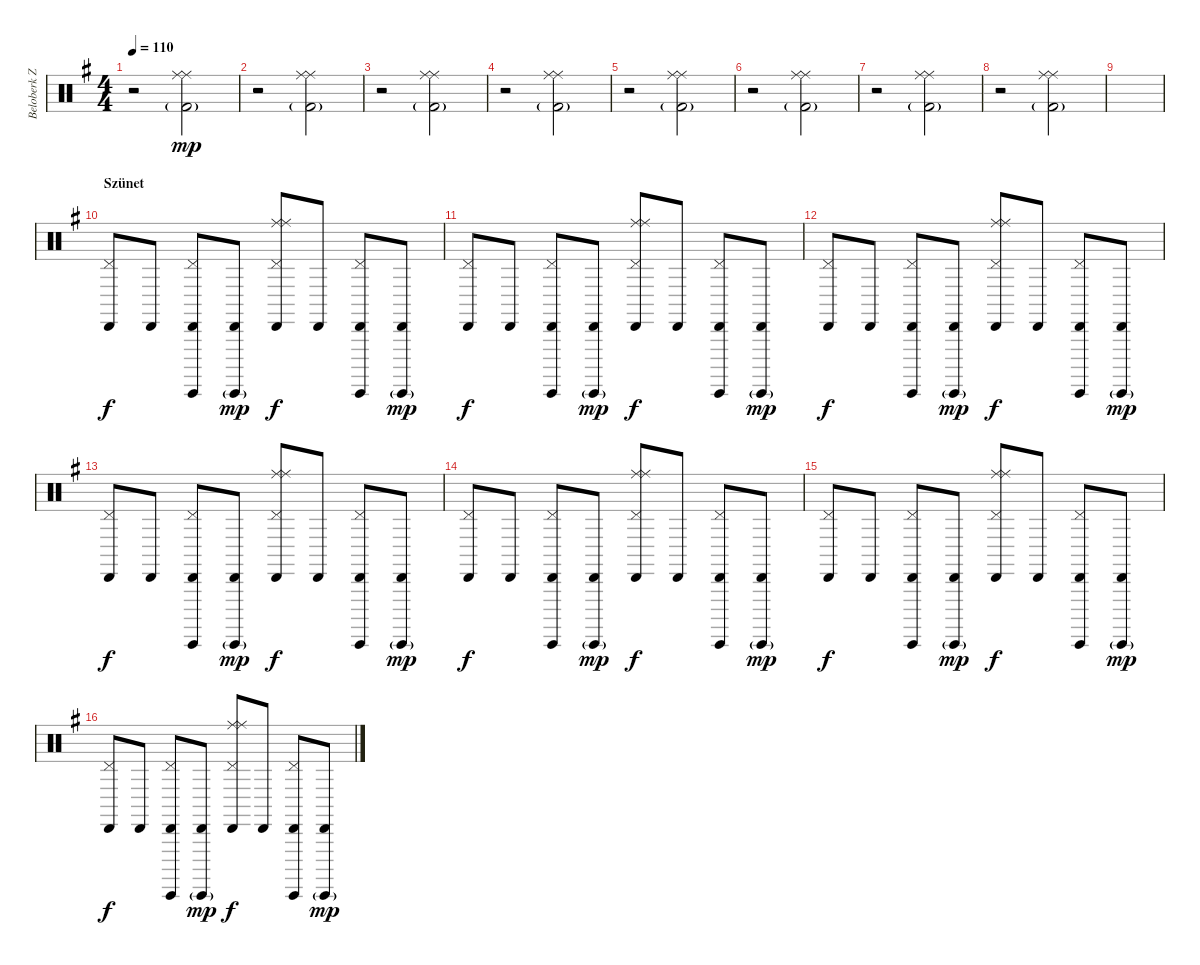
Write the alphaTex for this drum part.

\track ("Beloberk Zsolt" "Beloberk Z") {instrument percussion}
\staff {score}
\articulation defaults
\ts (4 4)
\tempo 110
\clef neutral
\ks eminor
r.2{dy mp} ("Ride (middle)" "Ride (middle)" "Kick (hit) 2"{g}).2 |
r.2 ("Ride (middle)" "Ride (middle)" "Kick (hit) 2"{g}).2 |
r.2 ("Ride (middle)" "Ride (middle)" "Kick (hit) 2"{g}).2 |
r.2 ("Ride (middle)" "Ride (middle)" "Kick (hit) 2"{g}).2 |
r.2 ("Ride (middle)" "Ride (middle)" "Kick (hit) 2"{g}).2 |
r.2 ("Ride (middle)" "Ride (middle)" "Kick (hit) 2"{g}).2 |
r.2 ("Ride (middle)" "Ride (middle)" "Kick (hit) 2"{g}).2 |
r.2 ("Ride (middle)" "Ride (middle)" "Kick (hit) 2"{g}).2 |
|
\section ("" "Szünet")
("Cabasa (hit)" "Pedal Hi-Hat (hit)").8{dy f} "Cabasa (hit)".8 ("Cabasa (hit)" "Guiro (hit)" "Pedal Hi-Hat (hit)").8 ("Cabasa (hit)" "Guiro (hit)"{g}).8{dy mp} ("Cabasa (hit)" "Pedal Hi-Hat (hit)" "Ride (middle)" "Ride (middle)").8{dy f} "Cabasa (hit)".8 ("Cabasa (hit)" "Guiro (hit)" "Pedal Hi-Hat (hit)").8 ("Cabasa (hit)" "Guiro (hit)"{g}).8{dy mp} |
("Cabasa (hit)" "Pedal Hi-Hat (hit)").8{dy f} "Cabasa (hit)".8 ("Cabasa (hit)" "Guiro (hit)" "Pedal Hi-Hat (hit)").8 ("Cabasa (hit)" "Guiro (hit)"{g}).8{dy mp} ("Cabasa (hit)" "Pedal Hi-Hat (hit)" "Ride (middle)" "Ride (middle)").8{dy f} "Cabasa (hit)".8 ("Cabasa (hit)" "Guiro (hit)" "Pedal Hi-Hat (hit)").8 ("Cabasa (hit)" "Guiro (hit)"{g}).8{dy mp} |
("Cabasa (hit)" "Pedal Hi-Hat (hit)").8{dy f} "Cabasa (hit)".8 ("Cabasa (hit)" "Guiro (hit)" "Pedal Hi-Hat (hit)").8 ("Cabasa (hit)" "Guiro (hit)"{g}).8{dy mp} ("Cabasa (hit)" "Pedal Hi-Hat (hit)" "Ride (middle)" "Ride (middle)").8{dy f} "Cabasa (hit)".8 ("Cabasa (hit)" "Guiro (hit)" "Pedal Hi-Hat (hit)").8 ("Cabasa (hit)" "Guiro (hit)"{g}).8{dy mp} |
("Cabasa (hit)" "Pedal Hi-Hat (hit)").8{dy f} "Cabasa (hit)".8 ("Cabasa (hit)" "Guiro (hit)" "Pedal Hi-Hat (hit)").8 ("Cabasa (hit)" "Guiro (hit)"{g}).8{dy mp} ("Cabasa (hit)" "Pedal Hi-Hat (hit)" "Ride (middle)" "Ride (middle)").8{dy f} "Cabasa (hit)".8 ("Cabasa (hit)" "Guiro (hit)" "Pedal Hi-Hat (hit)").8 ("Cabasa (hit)" "Guiro (hit)"{g}).8{dy mp} |
("Cabasa (hit)" "Pedal Hi-Hat (hit)").8{dy f} "Cabasa (hit)".8 ("Cabasa (hit)" "Guiro (hit)" "Pedal Hi-Hat (hit)").8 ("Cabasa (hit)" "Guiro (hit)"{g}).8{dy mp} ("Cabasa (hit)" "Pedal Hi-Hat (hit)" "Ride (middle)" "Ride (middle)").8{dy f} "Cabasa (hit)".8 ("Cabasa (hit)" "Guiro (hit)" "Pedal Hi-Hat (hit)").8 ("Cabasa (hit)" "Guiro (hit)"{g}).8{dy mp} |
("Cabasa (hit)" "Pedal Hi-Hat (hit)").8{dy f} "Cabasa (hit)".8 ("Cabasa (hit)" "Guiro (hit)" "Pedal Hi-Hat (hit)").8 ("Cabasa (hit)" "Guiro (hit)"{g}).8{dy mp} ("Cabasa (hit)" "Pedal Hi-Hat (hit)" "Ride (middle)" "Ride (middle)").8{dy f} "Cabasa (hit)".8 ("Cabasa (hit)" "Guiro (hit)" "Pedal Hi-Hat (hit)").8 ("Cabasa (hit)" "Guiro (hit)"{g}).8{dy mp} |
("Cabasa (hit)" "Pedal Hi-Hat (hit)").8{dy f} "Cabasa (hit)".8 ("Cabasa (hit)" "Guiro (hit)" "Pedal Hi-Hat (hit)").8 ("Cabasa (hit)" "Guiro (hit)"{g}).8{dy mp} ("Cabasa (hit)" "Pedal Hi-Hat (hit)" "Ride (middle)" "Ride (middle)").8{dy f} "Cabasa (hit)".8 ("Cabasa (hit)" "Guiro (hit)" "Pedal Hi-Hat (hit)").8 ("Cabasa (hit)" "Guiro (hit)"{g}).8{dy mp}
